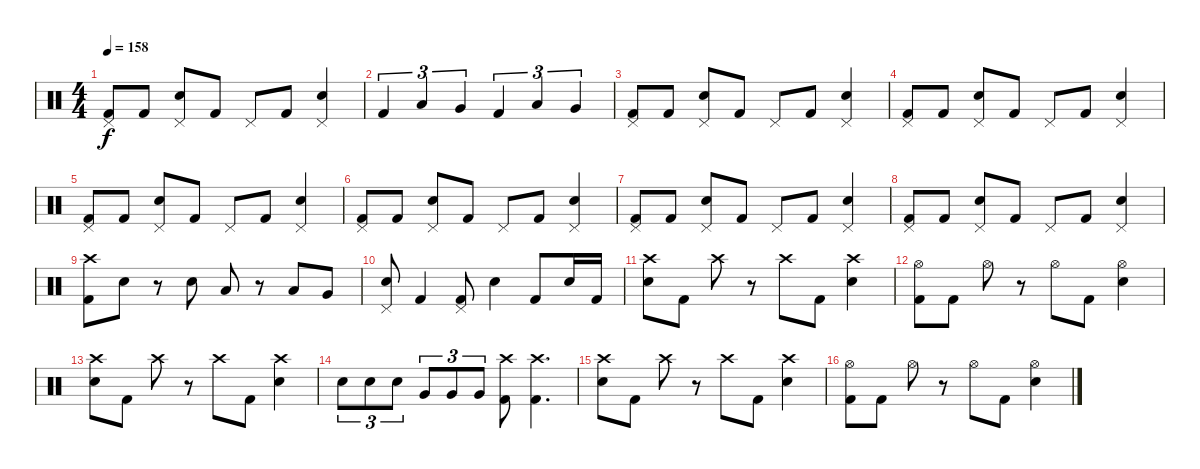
\track "" {instrument percussion}
\staff {score}
\articulation defaults
\ts (4 4)
\tempo 158
\clef neutral
\ks c
("Pedal Hi-Hat (hit)" "Kick (hit) 2").8{dy f} "Kick (hit) 2".8 ("Pedal Hi-Hat (hit)" "Electric Snare (hit)").8 "Kick (hit) 2".8 "Pedal Hi-Hat (hit)".8 "Kick (hit) 2".8 ("Pedal Hi-Hat (hit)" "Electric Snare (hit)").4 |
"Kick (hit) 2".4{tu (3 2)} "Low Floor Tom (hit)".4{tu (3 2)} "Very Low Tom (hit)".4{tu (3 2)} "Kick (hit) 2".4{tu (3 2)} "Low Floor Tom (hit)".4{tu (3 2)} "Very Low Tom (hit)".4{tu (3 2)} |
("Pedal Hi-Hat (hit)" "Kick (hit) 2").8 "Kick (hit) 2".8 ("Pedal Hi-Hat (hit)" "Electric Snare (hit)").8 "Kick (hit) 2".8 "Pedal Hi-Hat (hit)".8 "Kick (hit) 2".8 ("Pedal Hi-Hat (hit)" "Electric Snare (hit)").4 |
("Pedal Hi-Hat (hit)" "Kick (hit) 2").8 "Kick (hit) 2".8 ("Pedal Hi-Hat (hit)" "Electric Snare (hit)").8 "Kick (hit) 2".8 "Pedal Hi-Hat (hit)".8 "Kick (hit) 2".8 ("Pedal Hi-Hat (hit)" "Electric Snare (hit)").4 |
("Pedal Hi-Hat (hit)" "Kick (hit) 2").8 "Kick (hit) 2".8 ("Pedal Hi-Hat (hit)" "Electric Snare (hit)").8 "Kick (hit) 2".8 "Pedal Hi-Hat (hit)".8 "Kick (hit) 2".8 ("Pedal Hi-Hat (hit)" "Electric Snare (hit)").4 |
("Pedal Hi-Hat (hit)" "Kick (hit) 2").8 "Kick (hit) 2".8 ("Pedal Hi-Hat (hit)" "Electric Snare (hit)").8 "Kick (hit) 2".8 "Pedal Hi-Hat (hit)".8 "Kick (hit) 2".8 ("Pedal Hi-Hat (hit)" "Electric Snare (hit)").4 |
("Pedal Hi-Hat (hit)" "Kick (hit) 2").8 "Kick (hit) 2".8 ("Pedal Hi-Hat (hit)" "Electric Snare (hit)").8 "Kick (hit) 2".8 "Pedal Hi-Hat (hit)".8 "Kick (hit) 2".8 ("Pedal Hi-Hat (hit)" "Electric Snare (hit)").4 |
("Pedal Hi-Hat (hit)" "Kick (hit) 2").8 "Kick (hit) 2".8 ("Pedal Hi-Hat (hit)" "Electric Snare (hit)").8 "Kick (hit) 2".8 "Pedal Hi-Hat (hit)".8 "Kick (hit) 2".8 ("Pedal Hi-Hat (hit)" "Electric Snare (hit)").4 |
("Crash high (hit)" "Kick (hit) 2").8 "Electric Snare (hit)".8 r.8 "Electric Snare (hit)".8 "Low Floor Tom (hit)".8 r.8 "Low Floor Tom (hit)".8 "Very Low Tom (hit)".8 |
("Pedal Hi-Hat (hit)" "Electric Snare (hit)").8 "Kick (hit) 2".4 ("Pedal Hi-Hat (hit)" "Kick (hit) 2").8 "Electric Snare (hit)".4 "Kick (hit) 2".8 "Electric Snare (hit)".16 "Kick (hit) 2".16 |
("Crash high (hit)" "Electric Snare (hit)").8 "Kick (hit) 2".8 "Crash high (hit)".8 r.8 "Crash high (hit)".8 "Kick (hit) 2".8 ("Crash high (hit)" "Electric Snare (hit)").4 |
("Hi-Hat (open)" "Kick (hit) 2").8 "Kick (hit) 2".8 "Hi-Hat (open)".8 r.8 "Hi-Hat (open)".8 "Kick (hit) 2".8 ("Hi-Hat (open)" "Electric Snare (hit)").4 |
("Crash high (hit)" "Electric Snare (hit)").8 "Kick (hit) 2".8 "Crash high (hit)".8 r.8 "Crash high (hit)".8 "Kick (hit) 2".8 ("Crash high (hit)" "Electric Snare (hit)").4 |
"Electric Snare (hit)".8{tu (3 2)} "Electric Snare (hit)".8{tu (3 2)} "Electric Snare (hit)".8{tu (3 2)} "Very Low Tom (hit)".8{tu (3 2)} "Very Low Tom (hit)".8{tu (3 2)} "Very Low Tom (hit)".8{tu (3 2)} ("Crash high (hit)" "Kick (hit) 2").8 ("Crash high (hit)" "Kick (hit) 2").4{d} |
("Crash high (hit)" "Electric Snare (hit)").8 "Kick (hit) 2".8 "Crash high (hit)".8 r.8 "Crash high (hit)".8 "Kick (hit) 2".8 ("Crash high (hit)" "Electric Snare (hit)").4 |
("Hi-Hat (open)" "Kick (hit) 2").8 "Kick (hit) 2".8 "Hi-Hat (open)".8 r.8 "Hi-Hat (open)".8 "Kick (hit) 2".8 ("Hi-Hat (open)" "Electric Snare (hit)").4
